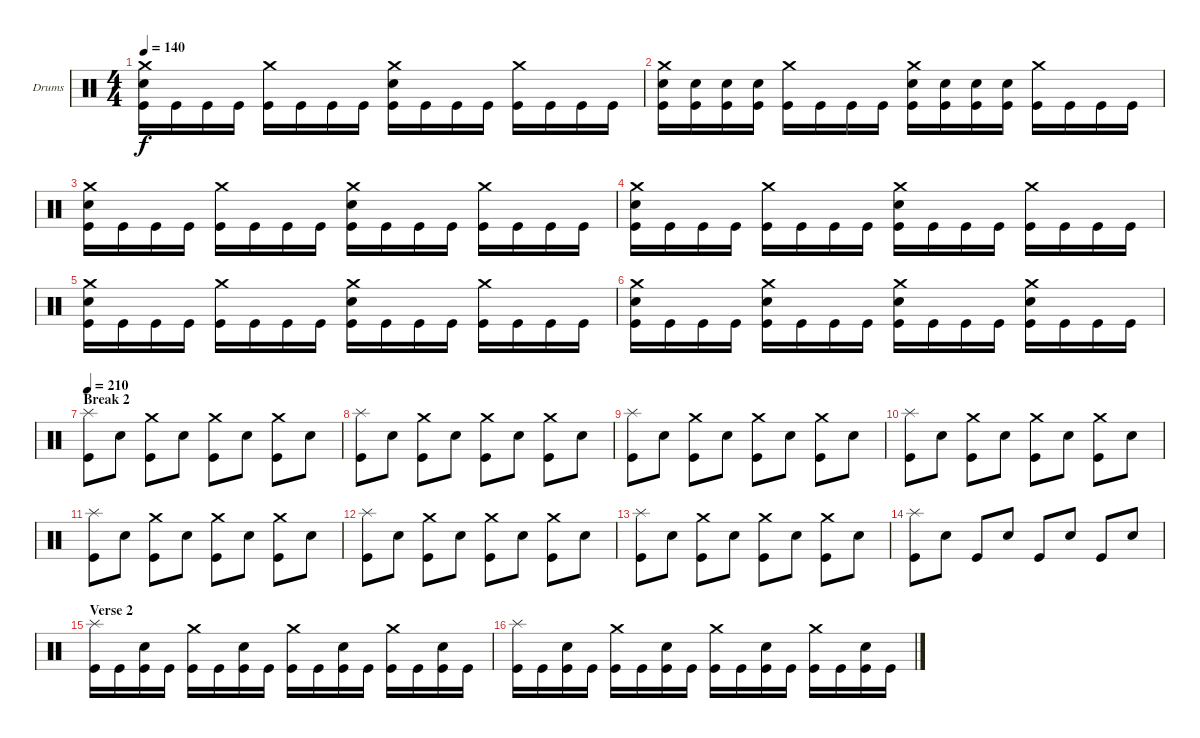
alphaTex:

\defaultSystemsLayout 4
\bracketExtendMode groupsimilarinstruments
\firstSystemTrackNameOrientation horizontal
\otherSystemsTrackNameOrientation horizontal
\track ("Ventor" "Drums") {instrument percussion}
\staff {score}
\articulation defaults
\ts (4 4)
\tempo 140
\clef neutral
\scale
0.5
\ks c
("Kick (hit)" "Snare (hit) 2" "Crash medium (hit)").16{dy f} "Kick (hit)".16 "Kick (hit)".16 "Kick (hit)".16 ("Kick (hit)" "Crash medium (hit)").16 "Kick (hit)".16 "Kick (hit)".16 "Kick (hit)".16 ("Kick (hit)" "Snare (hit) 2" "Crash medium (hit)").16 "Kick (hit)".16 "Kick (hit)".16 "Kick (hit)".16 ("Kick (hit)" "Crash medium (hit)").16 "Kick (hit)".16 "Kick (hit)".16 "Kick (hit)".16 |
\scale
0.5 ("Kick (hit)" "Snare (hit) 2" "Crash medium (hit)").16 ("Kick (hit)" "Snare (hit) 2").16 ("Kick (hit)" "Snare (hit) 2").16 ("Kick (hit)" "Snare (hit) 2").16 ("Kick (hit)" "Crash medium (hit)").16 "Kick (hit)".16 "Kick (hit)".16 "Kick (hit)".16 ("Kick (hit)" "Snare (hit) 2" "Crash medium (hit)").16 ("Kick (hit)" "Snare (hit) 2").16 ("Kick (hit)" "Snare (hit) 2").16 ("Kick (hit)" "Snare (hit) 2").16 ("Kick (hit)" "Crash medium (hit)").16 "Kick (hit)".16 "Kick (hit)".16 "Kick (hit)".16 |
\scale
0.5 ("Kick (hit)" "Snare (hit) 2" "Crash medium (hit)").16 "Kick (hit)".16 "Kick (hit)".16 "Kick (hit)".16 ("Kick (hit)" "Crash medium (hit)").16 "Kick (hit)".16 "Kick (hit)".16 "Kick (hit)".16 ("Kick (hit)" "Snare (hit) 2" "Crash medium (hit)").16 "Kick (hit)".16 "Kick (hit)".16 "Kick (hit)".16 ("Kick (hit)" "Crash medium (hit)").16 "Kick (hit)".16 "Kick (hit)".16 "Kick (hit)".16 |
\scale
0.5 ("Kick (hit)" "Snare (hit) 2" "Crash medium (hit)").16 "Kick (hit)".16 "Kick (hit)".16 "Kick (hit)".16 ("Kick (hit)" "Crash medium (hit)").16 "Kick (hit)".16 "Kick (hit)".16 "Kick (hit)".16 ("Kick (hit)" "Snare (hit) 2" "Crash medium (hit)").16 "Kick (hit)".16 "Kick (hit)".16 "Kick (hit)".16 ("Kick (hit)" "Crash medium (hit)").16 "Kick (hit)".16 "Kick (hit)".16 "Kick (hit)".16 |
\scale
0.5 ("Kick (hit)" "Snare (hit) 2" "Crash medium (hit)").16 "Kick (hit)".16 "Kick (hit)".16 "Kick (hit)".16 ("Kick (hit)" "Crash medium (hit)").16 "Kick (hit)".16 "Kick (hit)".16 "Kick (hit)".16 ("Kick (hit)" "Snare (hit) 2" "Crash medium (hit)").16 "Kick (hit)".16 "Kick (hit)".16 "Kick (hit)".16 ("Kick (hit)" "Crash medium (hit)").16 "Kick (hit)".16 "Kick (hit)".16 "Kick (hit)".16 |
\scale
0.5 ("Kick (hit)" "Snare (hit) 2" "Crash medium (hit)").16 "Kick (hit)".16 "Kick (hit)".16 "Kick (hit)".16 ("Kick (hit)" "Crash medium (hit)" "Snare (hit) 2").16 "Kick (hit)".16 "Kick (hit)".16 "Kick (hit)".16 ("Kick (hit)" "Snare (hit) 2" "Crash medium (hit)").16 "Kick (hit)".16 "Kick (hit)".16 "Kick (hit)".16 ("Kick (hit)" "Crash medium (hit)" "Snare (hit) 2").16 "Kick (hit)".16 "Kick (hit)".16 "Kick (hit)".16 |
\section ("" "Break 2")
\tempo 210
\scale
0.5 ("Kick (hit)" "Splash (hit)").8 "Snare (hit) 2".8 ("Kick (hit)" "Crash medium (hit)").8 "Snare (hit) 2".8 ("Kick (hit)" "Crash medium (hit)").8 "Snare (hit) 2".8 ("Kick (hit)" "Crash medium (hit)").8 "Snare (hit) 2".8 |
\scale
0.5 ("Kick (hit)" "Splash (hit)").8 "Snare (hit) 2".8 ("Kick (hit)" "Crash medium (hit)").8 "Snare (hit) 2".8 ("Kick (hit)" "Crash medium (hit)").8 "Snare (hit) 2".8 ("Kick (hit)" "Crash medium (hit)").8 "Snare (hit) 2".8 |
\scale
0.5 ("Kick (hit)" "Splash (hit)").8 "Snare (hit) 2".8 ("Kick (hit)" "Crash medium (hit)").8 "Snare (hit) 2".8 ("Kick (hit)" "Crash medium (hit)").8 "Snare (hit) 2".8 ("Kick (hit)" "Crash medium (hit)").8 "Snare (hit) 2".8 |
\scale
0.5 ("Kick (hit)" "Splash (hit)").8 "Snare (hit) 2".8 ("Kick (hit)" "Crash medium (hit)").8 "Snare (hit) 2".8 ("Kick (hit)" "Crash medium (hit)").8 "Snare (hit) 2".8 ("Kick (hit)" "Crash medium (hit)").8 "Snare (hit) 2".8 |
\scale
0.5 ("Kick (hit)" "Splash (hit)").8 "Snare (hit) 2".8 ("Kick (hit)" "Crash medium (hit)").8 "Snare (hit) 2".8 ("Kick (hit)" "Crash medium (hit)").8 "Snare (hit) 2".8 ("Kick (hit)" "Crash medium (hit)").8 "Snare (hit) 2".8 |
\scale
0.5 ("Kick (hit)" "Splash (hit)").8 "Snare (hit) 2".8 ("Kick (hit)" "Crash medium (hit)").8 "Snare (hit) 2".8 ("Kick (hit)" "Crash medium (hit)").8 "Snare (hit) 2".8 ("Kick (hit)" "Crash medium (hit)").8 "Snare (hit) 2".8 |
\scale
0.5 ("Kick (hit)" "Splash (hit)").8 "Snare (hit) 2".8 ("Kick (hit)" "Crash medium (hit)").8 "Snare (hit) 2".8 ("Kick (hit)" "Crash medium (hit)").8 "Snare (hit) 2".8 ("Kick (hit)" "Crash medium (hit)").8 "Snare (hit) 2".8 |
\scale
0.5 ("Kick (hit)" "Splash (hit)").8 "Snare (hit) 2".8 "Kick (hit)".8 "Snare (hit) 2".8 "Kick (hit)".8 "Snare (hit) 2".8 "Kick (hit)".8 "Snare (hit) 2".8 |
\section ("" "Verse 2")
\scale
0.5 ("Kick (hit)" "Splash (hit)").16 "Kick (hit)".16 ("Snare (hit) 2" "Kick (hit)").16 "Kick (hit)".16 ("Kick (hit)" "Crash medium (hit)").16 "Kick (hit)".16 ("Snare (hit) 2" "Kick (hit)").16 "Kick (hit)".16 ("Kick (hit)" "Crash medium (hit)").16 "Kick (hit)".16 ("Snare (hit) 2" "Kick (hit)").16 "Kick (hit)".16 ("Kick (hit)" "Crash medium (hit)").16 "Kick (hit)".16 ("Snare (hit) 2" "Kick (hit)").16 "Kick (hit)".16 |
\scale
0.5 ("Kick (hit)" "Splash (hit)").16 "Kick (hit)".16 ("Snare (hit) 2" "Kick (hit)").16 "Kick (hit)".16 ("Kick (hit)" "Crash medium (hit)").16 "Kick (hit)".16 ("Snare (hit) 2" "Kick (hit)").16 "Kick (hit)".16 ("Kick (hit)" "Crash medium (hit)").16 "Kick (hit)".16 ("Snare (hit) 2" "Kick (hit)").16 "Kick (hit)".16 ("Kick (hit)" "Crash medium (hit)").16 "Kick (hit)".16 ("Snare (hit) 2" "Kick (hit)").16 "Kick (hit)".16
